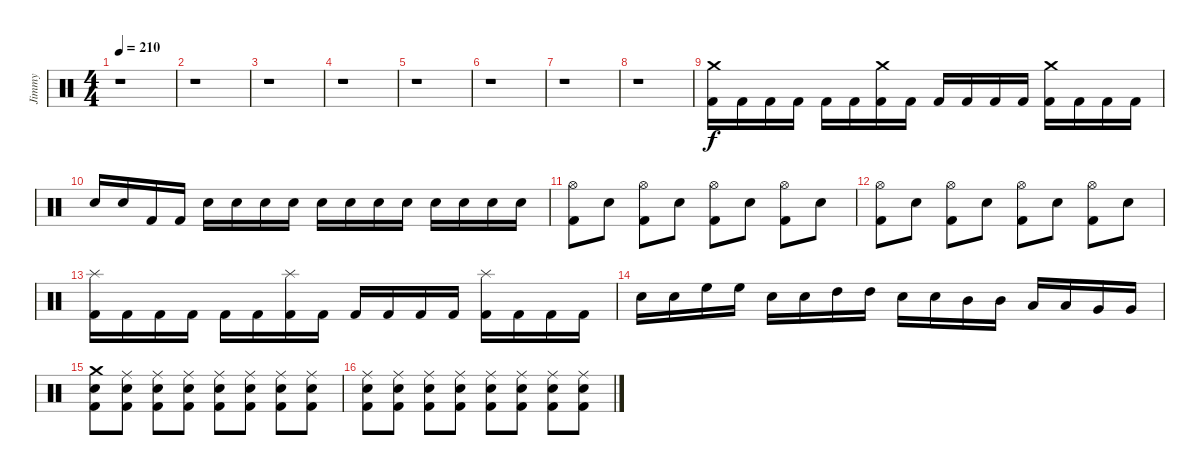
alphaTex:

\track ("Jimmy" "Jimmy") {instrument percussion}
\staff {score}
\articulation defaults
\ts (4 4)
\tempo 210
\clef neutral
\ks c
r.1{dy f} |
r.1 |
r.1 |
r.1 |
r.1 |
r.1 |
r.1 |
r.1 |
("Crash medium (hit)" "Kick (hit) 2").16 "Kick (hit) 2".16 "Kick (hit) 2".16 "Kick (hit) 2".16 "Kick (hit) 2".16 "Kick (hit) 2".16 ("Crash medium (hit)" "Kick (hit) 2").16 "Kick (hit) 2".16 "Kick (hit) 2".16 "Kick (hit) 2".16 "Kick (hit) 2".16 "Kick (hit) 2".16 ("Crash medium (hit)" "Kick (hit) 2").16 "Kick (hit) 2".16 "Kick (hit) 2".16 "Kick (hit) 2".16 |
"Electric Snare (hit)".16 "Electric Snare (hit)".16 "Kick (hit) 2".16 "Kick (hit) 2".16 "Electric Snare (hit)".16 "Electric Snare (hit)".16 "Electric Snare (hit)".16 "Electric Snare (hit)".16 "Electric Snare (hit)".16 "Electric Snare (hit)".16 "Electric Snare (hit)".16 "Electric Snare (hit)".16 "Electric Snare (hit)".16 "Electric Snare (hit)".16 "Electric Snare (hit)".16 "Electric Snare (hit)".16 |
("Hi-Hat (open)" "Kick (hit) 2").8 "Electric Snare (hit)".8 ("Hi-Hat (open)" "Kick (hit) 2").8 "Electric Snare (hit)".8 ("Hi-Hat (open)" "Kick (hit) 2").8 "Electric Snare (hit)".8 ("Hi-Hat (open)" "Kick (hit) 2").8 "Electric Snare (hit)".8 |
("Hi-Hat (open)" "Kick (hit) 2").8 "Electric Snare (hit)".8 ("Hi-Hat (open)" "Kick (hit) 2").8 "Electric Snare (hit)".8 ("Hi-Hat (open)" "Kick (hit) 2").8 "Electric Snare (hit)".8 ("Hi-Hat (open)" "Kick (hit) 2").8 "Electric Snare (hit)".8 |
("Splash (hit)" "Kick (hit) 2").16 "Kick (hit) 2".16 "Kick (hit) 2".16 "Kick (hit) 2".16 "Kick (hit) 2".16 "Kick (hit) 2".16 ("Splash (hit)" "Kick (hit) 2").16 "Kick (hit) 2".16 "Kick (hit) 2".16 "Kick (hit) 2".16 "Kick (hit) 2".16 "Kick (hit) 2".16 ("Splash (hit)" "Kick (hit) 2").16 "Kick (hit) 2".16 "Kick (hit) 2".16 "Kick (hit) 2".16 |
"Electric Snare (hit)".16 "Electric Snare (hit)".16 "High Floor Tom (hit)".16 "High Floor Tom (hit)".16 "Electric Snare (hit)".16 "Electric Snare (hit)".16 "High Tom (hit)".16 "High Tom (hit)".16 "Electric Snare (hit)".16 "Electric Snare (hit)".16 "Mid Tom (hit)".16 "Mid Tom (hit)".16 "Low Tom (hit)".16 "Low Tom (hit)".16 "Very Low Tom (hit)".16 "Very Low Tom (hit)".16 |
("Crash medium (hit)" "Electric Snare (hit)" "Kick (hit) 2").8 ("Ride (middle)" "Electric Snare (hit)" "Kick (hit) 2").8 ("Ride (middle)" "Electric Snare (hit)" "Kick (hit) 2").8 ("Ride (middle)" "Electric Snare (hit)" "Kick (hit) 2").8 ("Ride (middle)" "Electric Snare (hit)" "Kick (hit) 2").8 ("Ride (middle)" "Electric Snare (hit)" "Kick (hit) 2").8 ("Ride (middle)" "Electric Snare (hit)" "Kick (hit) 2").8 ("Ride (middle)" "Electric Snare (hit)" "Kick (hit) 2").8 |
("Ride (middle)" "Electric Snare (hit)" "Kick (hit) 2").8 ("Ride (middle)" "Electric Snare (hit)" "Kick (hit) 2").8 ("Ride (middle)" "Electric Snare (hit)" "Kick (hit) 2").8 ("Ride (middle)" "Electric Snare (hit)" "Kick (hit) 2").8 ("Ride (middle)" "Electric Snare (hit)" "Kick (hit) 2").8 ("Ride (middle)" "Electric Snare (hit)" "Kick (hit) 2").8 ("Ride (middle)" "Electric Snare (hit)" "Kick (hit) 2").8 ("Ride (middle)" "Electric Snare (hit)" "Kick (hit) 2").8
